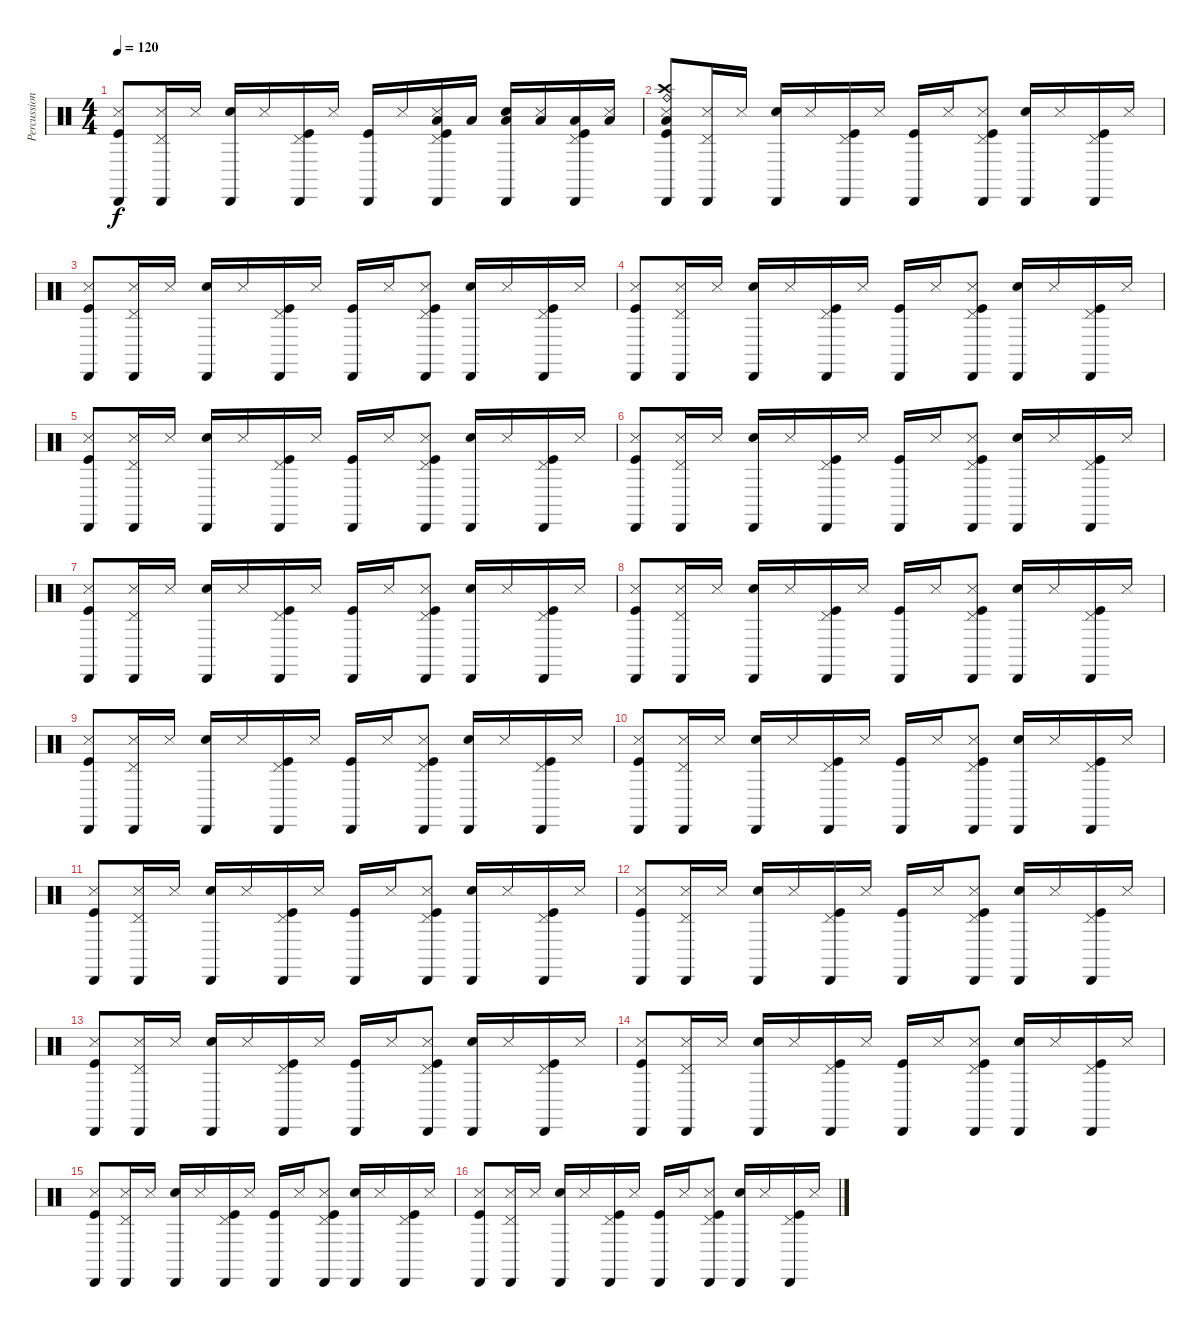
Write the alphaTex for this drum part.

\track ("Percussions" "Percussion") {instrument percussion}
\staff {score}
\articulation defaults
\ts (4 4)
\tempo 120
\clef neutral
\ks c
("Kick (hit)" "Cabasa (hit)" "Metronome (hit)").8{dy f} ("Cabasa (hit)" "Pedal Hi-Hat (hit)" "Metronome (hit)").16 "Metronome (hit)".16 ("Snare (hit) 2" "Cabasa (hit)").16 "Metronome (hit)".16 ("Kick (hit)" "Cabasa (hit)" "Pedal Hi-Hat (hit)").16 "Metronome (hit)".16 ("Kick (hit)" "Cabasa (hit)").16 "Metronome (hit)".16 ("Kick (hit)" "Cabasa (hit)" "Pedal Hi-Hat (hit)" "Metronome (hit)" "Low Floor Tom (hit)").16 "Low Floor Tom (hit)".16 ("Snare (hit) 2" "Cabasa (hit)" "Low Floor Tom (hit)").16 ("Metronome (hit)" "Low Floor Tom (hit)").16 ("Kick (hit)" "Cabasa (hit)" "Pedal Hi-Hat (hit)" "Low Floor Tom (hit)").16 ("Metronome (hit)" "Low Floor Tom (hit)").16 |
("Low Floor Tom (hit)" "Crash high (hit)" "Ride (bell)" "Kick (hit)" "Cabasa (hit)" "Metronome (hit)").8 ("Cabasa (hit)" "Pedal Hi-Hat (hit)" "Metronome (hit)").16 "Metronome (hit)".16 ("Snare (hit) 2" "Cabasa (hit)").16 "Metronome (hit)".16 ("Kick (hit)" "Cabasa (hit)" "Pedal Hi-Hat (hit)").16 "Metronome (hit)".16 ("Kick (hit)" "Cabasa (hit)").16 "Metronome (hit)".16 ("Kick (hit)" "Cabasa (hit)" "Pedal Hi-Hat (hit)" "Metronome (hit)").8 ("Snare (hit) 2" "Cabasa (hit)").16 "Metronome (hit)".16 ("Kick (hit)" "Cabasa (hit)" "Pedal Hi-Hat (hit)").16 "Metronome (hit)".16 |
("Kick (hit)" "Cabasa (hit)" "Metronome (hit)").8 ("Cabasa (hit)" "Pedal Hi-Hat (hit)" "Metronome (hit)").16 "Metronome (hit)".16 ("Snare (hit) 2" "Cabasa (hit)").16 "Metronome (hit)".16 ("Kick (hit)" "Cabasa (hit)" "Pedal Hi-Hat (hit)").16 "Metronome (hit)".16 ("Kick (hit)" "Cabasa (hit)").16 "Metronome (hit)".16 ("Kick (hit)" "Cabasa (hit)" "Pedal Hi-Hat (hit)" "Metronome (hit)").8 ("Snare (hit) 2" "Cabasa (hit)").16 "Metronome (hit)".16 ("Kick (hit)" "Cabasa (hit)" "Pedal Hi-Hat (hit)").16 "Metronome (hit)".16 |
("Kick (hit)" "Cabasa (hit)" "Metronome (hit)").8 ("Cabasa (hit)" "Pedal Hi-Hat (hit)" "Metronome (hit)").16 "Metronome (hit)".16 ("Snare (hit) 2" "Cabasa (hit)").16 "Metronome (hit)".16 ("Kick (hit)" "Cabasa (hit)" "Pedal Hi-Hat (hit)").16 "Metronome (hit)".16 ("Kick (hit)" "Cabasa (hit)").16 "Metronome (hit)".16 ("Kick (hit)" "Cabasa (hit)" "Pedal Hi-Hat (hit)" "Metronome (hit)").8 ("Snare (hit) 2" "Cabasa (hit)").16 "Metronome (hit)".16 ("Kick (hit)" "Cabasa (hit)" "Pedal Hi-Hat (hit)").16 "Metronome (hit)".16 |
("Kick (hit)" "Cabasa (hit)" "Metronome (hit)").8 ("Cabasa (hit)" "Pedal Hi-Hat (hit)" "Metronome (hit)").16 "Metronome (hit)".16 ("Snare (hit) 2" "Cabasa (hit)").16 "Metronome (hit)".16 ("Kick (hit)" "Cabasa (hit)" "Pedal Hi-Hat (hit)").16 "Metronome (hit)".16 ("Kick (hit)" "Cabasa (hit)").16 "Metronome (hit)".16 ("Kick (hit)" "Cabasa (hit)" "Pedal Hi-Hat (hit)" "Metronome (hit)").8 ("Snare (hit) 2" "Cabasa (hit)").16 "Metronome (hit)".16 ("Kick (hit)" "Cabasa (hit)" "Pedal Hi-Hat (hit)").16 "Metronome (hit)".16 |
("Kick (hit)" "Cabasa (hit)" "Metronome (hit)").8 ("Cabasa (hit)" "Pedal Hi-Hat (hit)" "Metronome (hit)").16 "Metronome (hit)".16 ("Snare (hit) 2" "Cabasa (hit)").16 "Metronome (hit)".16 ("Kick (hit)" "Cabasa (hit)" "Pedal Hi-Hat (hit)").16 "Metronome (hit)".16 ("Kick (hit)" "Cabasa (hit)").16 "Metronome (hit)".16 ("Kick (hit)" "Cabasa (hit)" "Pedal Hi-Hat (hit)" "Metronome (hit)").8 ("Snare (hit) 2" "Cabasa (hit)").16 "Metronome (hit)".16 ("Kick (hit)" "Cabasa (hit)" "Pedal Hi-Hat (hit)").16 "Metronome (hit)".16 |
("Kick (hit)" "Cabasa (hit)" "Metronome (hit)").8 ("Cabasa (hit)" "Pedal Hi-Hat (hit)" "Metronome (hit)").16 "Metronome (hit)".16 ("Snare (hit) 2" "Cabasa (hit)").16 "Metronome (hit)".16 ("Kick (hit)" "Cabasa (hit)" "Pedal Hi-Hat (hit)").16 "Metronome (hit)".16 ("Kick (hit)" "Cabasa (hit)").16 "Metronome (hit)".16 ("Kick (hit)" "Cabasa (hit)" "Pedal Hi-Hat (hit)" "Metronome (hit)").8 ("Snare (hit) 2" "Cabasa (hit)").16 "Metronome (hit)".16 ("Kick (hit)" "Cabasa (hit)" "Pedal Hi-Hat (hit)").16 "Metronome (hit)".16 |
("Kick (hit)" "Cabasa (hit)" "Metronome (hit)").8 ("Cabasa (hit)" "Pedal Hi-Hat (hit)" "Metronome (hit)").16 "Metronome (hit)".16 ("Snare (hit) 2" "Cabasa (hit)").16 "Metronome (hit)".16 ("Kick (hit)" "Cabasa (hit)" "Pedal Hi-Hat (hit)").16 "Metronome (hit)".16 ("Kick (hit)" "Cabasa (hit)").16 "Metronome (hit)".16 ("Kick (hit)" "Cabasa (hit)" "Pedal Hi-Hat (hit)" "Metronome (hit)").8 ("Snare (hit) 2" "Cabasa (hit)").16 "Metronome (hit)".16 ("Kick (hit)" "Cabasa (hit)" "Pedal Hi-Hat (hit)").16 "Metronome (hit)".16 |
("Kick (hit)" "Cabasa (hit)" "Metronome (hit)").8 ("Cabasa (hit)" "Pedal Hi-Hat (hit)" "Metronome (hit)").16 "Metronome (hit)".16 ("Snare (hit) 2" "Cabasa (hit)").16 "Metronome (hit)".16 ("Kick (hit)" "Cabasa (hit)" "Pedal Hi-Hat (hit)").16 "Metronome (hit)".16 ("Kick (hit)" "Cabasa (hit)").16 "Metronome (hit)".16 ("Kick (hit)" "Cabasa (hit)" "Pedal Hi-Hat (hit)" "Metronome (hit)").8 ("Snare (hit) 2" "Cabasa (hit)").16 "Metronome (hit)".16 ("Kick (hit)" "Cabasa (hit)" "Pedal Hi-Hat (hit)").16 "Metronome (hit)".16 |
("Kick (hit)" "Cabasa (hit)" "Metronome (hit)").8 ("Cabasa (hit)" "Pedal Hi-Hat (hit)" "Metronome (hit)").16 "Metronome (hit)".16 ("Snare (hit) 2" "Cabasa (hit)").16 "Metronome (hit)".16 ("Kick (hit)" "Cabasa (hit)" "Pedal Hi-Hat (hit)").16 "Metronome (hit)".16 ("Kick (hit)" "Cabasa (hit)").16 "Metronome (hit)".16 ("Kick (hit)" "Cabasa (hit)" "Pedal Hi-Hat (hit)" "Metronome (hit)").8 ("Snare (hit) 2" "Cabasa (hit)").16 "Metronome (hit)".16 ("Kick (hit)" "Cabasa (hit)" "Pedal Hi-Hat (hit)").16 "Metronome (hit)".16 |
("Kick (hit)" "Cabasa (hit)" "Metronome (hit)").8 ("Cabasa (hit)" "Pedal Hi-Hat (hit)" "Metronome (hit)").16 "Metronome (hit)".16 ("Snare (hit) 2" "Cabasa (hit)").16 "Metronome (hit)".16 ("Kick (hit)" "Cabasa (hit)" "Pedal Hi-Hat (hit)").16 "Metronome (hit)".16 ("Kick (hit)" "Cabasa (hit)").16 "Metronome (hit)".16 ("Kick (hit)" "Cabasa (hit)" "Pedal Hi-Hat (hit)" "Metronome (hit)").8 ("Snare (hit) 2" "Cabasa (hit)").16 "Metronome (hit)".16 ("Kick (hit)" "Cabasa (hit)" "Pedal Hi-Hat (hit)").16 "Metronome (hit)".16 |
("Kick (hit)" "Cabasa (hit)" "Metronome (hit)").8 ("Cabasa (hit)" "Pedal Hi-Hat (hit)" "Metronome (hit)").16 "Metronome (hit)".16 ("Snare (hit) 2" "Cabasa (hit)").16 "Metronome (hit)".16 ("Kick (hit)" "Cabasa (hit)" "Pedal Hi-Hat (hit)").16 "Metronome (hit)".16 ("Kick (hit)" "Cabasa (hit)").16 "Metronome (hit)".16 ("Kick (hit)" "Cabasa (hit)" "Pedal Hi-Hat (hit)" "Metronome (hit)").8 ("Snare (hit) 2" "Cabasa (hit)").16 "Metronome (hit)".16 ("Kick (hit)" "Cabasa (hit)" "Pedal Hi-Hat (hit)").16 "Metronome (hit)".16 |
("Kick (hit)" "Cabasa (hit)" "Metronome (hit)").8 ("Cabasa (hit)" "Pedal Hi-Hat (hit)" "Metronome (hit)").16 "Metronome (hit)".16 ("Snare (hit) 2" "Cabasa (hit)").16 "Metronome (hit)".16 ("Kick (hit)" "Cabasa (hit)" "Pedal Hi-Hat (hit)").16 "Metronome (hit)".16 ("Kick (hit)" "Cabasa (hit)").16 "Metronome (hit)".16 ("Kick (hit)" "Cabasa (hit)" "Pedal Hi-Hat (hit)" "Metronome (hit)").8 ("Snare (hit) 2" "Cabasa (hit)").16 "Metronome (hit)".16 ("Kick (hit)" "Cabasa (hit)" "Pedal Hi-Hat (hit)").16 "Metronome (hit)".16 |
("Kick (hit)" "Cabasa (hit)" "Metronome (hit)").8 ("Cabasa (hit)" "Pedal Hi-Hat (hit)" "Metronome (hit)").16 "Metronome (hit)".16 ("Snare (hit) 2" "Cabasa (hit)").16 "Metronome (hit)".16 ("Kick (hit)" "Cabasa (hit)" "Pedal Hi-Hat (hit)").16 "Metronome (hit)".16 ("Kick (hit)" "Cabasa (hit)").16 "Metronome (hit)".16 ("Kick (hit)" "Cabasa (hit)" "Pedal Hi-Hat (hit)" "Metronome (hit)").8 ("Snare (hit) 2" "Cabasa (hit)").16 "Metronome (hit)".16 ("Kick (hit)" "Cabasa (hit)" "Pedal Hi-Hat (hit)").16 "Metronome (hit)".16 |
("Kick (hit)" "Cabasa (hit)" "Metronome (hit)").8 ("Cabasa (hit)" "Pedal Hi-Hat (hit)" "Metronome (hit)").16 "Metronome (hit)".16 ("Snare (hit) 2" "Cabasa (hit)").16 "Metronome (hit)".16 ("Kick (hit)" "Cabasa (hit)" "Pedal Hi-Hat (hit)").16 "Metronome (hit)".16 ("Kick (hit)" "Cabasa (hit)").16 "Metronome (hit)".16 ("Kick (hit)" "Cabasa (hit)" "Pedal Hi-Hat (hit)" "Metronome (hit)").8 ("Snare (hit) 2" "Cabasa (hit)").16 "Metronome (hit)".16 ("Kick (hit)" "Cabasa (hit)" "Pedal Hi-Hat (hit)").16 "Metronome (hit)".16 |
("Kick (hit)" "Cabasa (hit)" "Metronome (hit)").8 ("Cabasa (hit)" "Pedal Hi-Hat (hit)" "Metronome (hit)").16 "Metronome (hit)".16 ("Snare (hit) 2" "Cabasa (hit)").16 "Metronome (hit)".16 ("Kick (hit)" "Cabasa (hit)" "Pedal Hi-Hat (hit)").16 "Metronome (hit)".16 ("Kick (hit)" "Cabasa (hit)").16 "Metronome (hit)".16 ("Kick (hit)" "Cabasa (hit)" "Pedal Hi-Hat (hit)" "Metronome (hit)").8 ("Snare (hit) 2" "Cabasa (hit)").16 "Metronome (hit)".16 ("Kick (hit)" "Cabasa (hit)" "Pedal Hi-Hat (hit)").16 "Metronome (hit)".16
